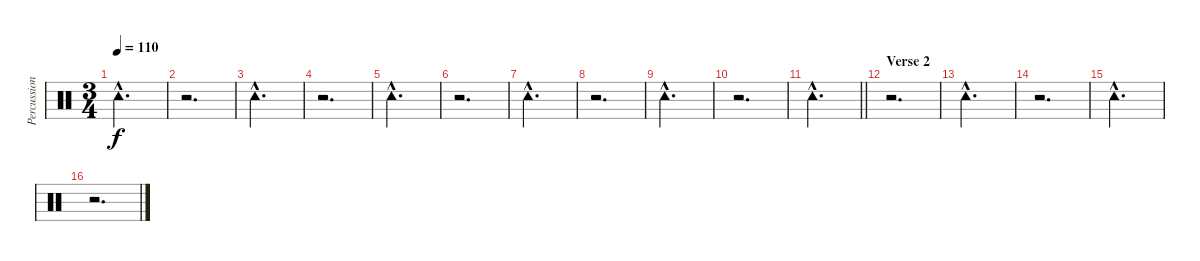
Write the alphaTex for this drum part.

\track ("Percussion" "Percussion") {instrument percussion}
\staff {score}
\articulation defaults
\ts (3 4)
\tempo 110
\clef neutral
\ks c "Tambourine (hit)"{hac}.2{d dy f}
|
r.2{d} |
"Tambourine (hit)"{hac}.2{d} |
r.2{d} |
"Tambourine (hit)"{hac}.2{d} |
r.2{d} |
"Tambourine (hit)"{hac}.2{d} |
r.2{d} |
"Tambourine (hit)"{hac}.2{d} |
r.2{d} |
\barLineRight lightlight "Tambourine (hit)"{hac}.2{d}
|
\section ("" "Verse 2")
r.2{d} |
"Tambourine (hit)"{hac}.2{d} |
r.2{d} |
"Tambourine (hit)"{hac}.2{d} |
r.2{d}
